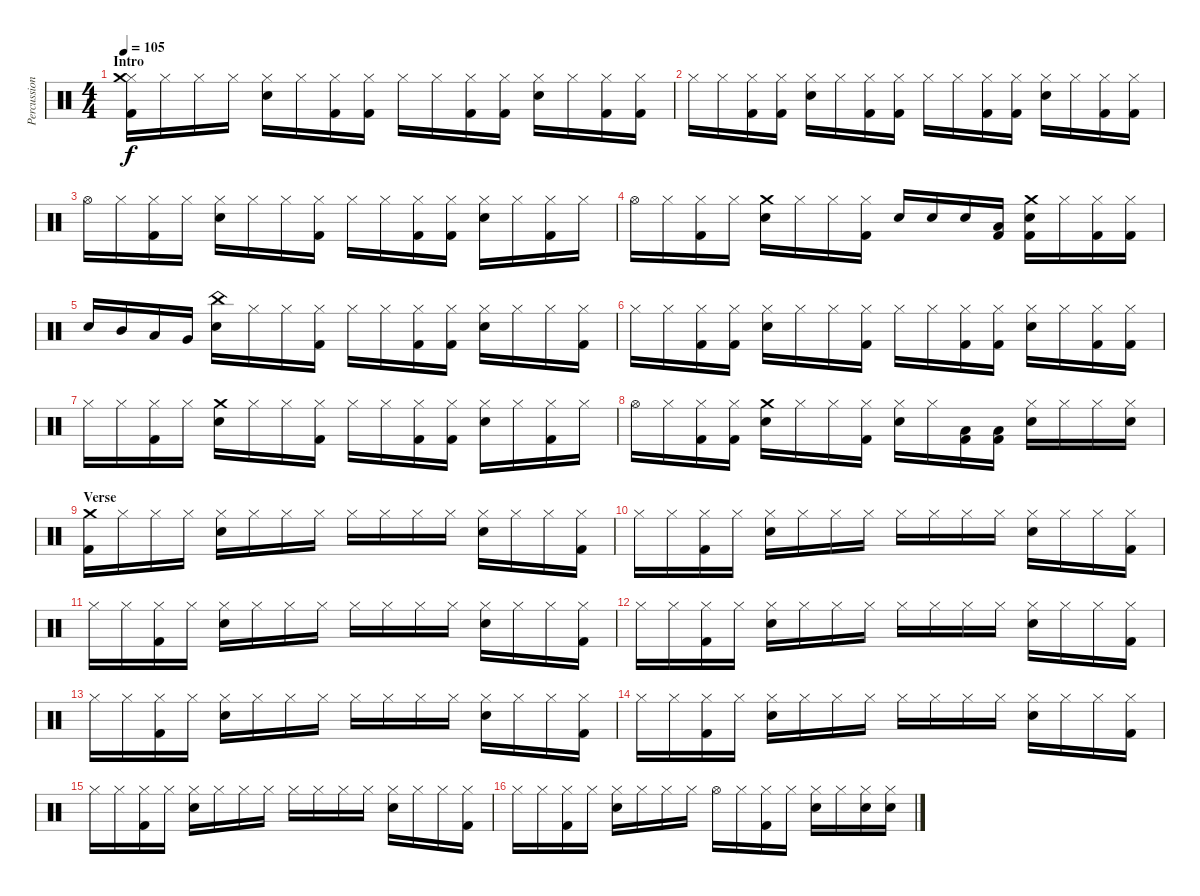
\track ("Percussion" "Percussion") {instrument percussion}
\staff {score}
\articulation defaults
\ts (4 4)
\section ("" "Intro")
\tempo 105
\clef neutral
\ks c
("Hi-Hat (closed)" "Crash medium (hit)" "Kick (hit) 2").16{dy f} "Hi-Hat (closed)".16 "Hi-Hat (closed)".16 "Hi-Hat (closed)".16 ("Hi-Hat (closed)" "Snare (hit) 2").16 "Hi-Hat (closed)".16 ("Hi-Hat (closed)" "Kick (hit) 2").16 ("Hi-Hat (closed)" "Kick (hit) 2").16 "Hi-Hat (closed)".16 "Hi-Hat (closed)".16 ("Hi-Hat (closed)" "Kick (hit) 2").16 ("Hi-Hat (closed)" "Kick (hit) 2").16 ("Hi-Hat (closed)" "Snare (hit) 2").16 "Hi-Hat (closed)".16 ("Hi-Hat (closed)" "Kick (hit) 2").16 ("Hi-Hat (closed)" "Kick (hit) 2").16 |
"Hi-Hat (closed)".16 "Hi-Hat (closed)".16 ("Hi-Hat (closed)" "Kick (hit) 2").16 ("Hi-Hat (closed)" "Kick (hit) 2").16 ("Hi-Hat (closed)" "Snare (hit) 2").16 "Hi-Hat (closed)".16 ("Hi-Hat (closed)" "Kick (hit) 2").16 ("Hi-Hat (closed)" "Kick (hit) 2").16 "Hi-Hat (closed)".16 "Hi-Hat (closed)".16 ("Hi-Hat (closed)" "Kick (hit) 2").16 ("Hi-Hat (closed)" "Kick (hit) 2").16 ("Hi-Hat (closed)" "Snare (hit) 2").16 "Hi-Hat (closed)".16 ("Hi-Hat (closed)" "Kick (hit) 2").16 ("Hi-Hat (closed)" "Kick (hit) 2").16 |
"Hi-Hat (open)".16 "Hi-Hat (closed)".16 ("Hi-Hat (closed)" "Kick (hit) 2").16 "Hi-Hat (closed)".16 ("Hi-Hat (closed)" "Snare (hit) 2").16 "Hi-Hat (closed)".16 "Hi-Hat (closed)".16 ("Hi-Hat (closed)" "Kick (hit) 2").16 "Hi-Hat (closed)".16 "Hi-Hat (closed)".16 ("Hi-Hat (closed)" "Kick (hit) 2").16 ("Hi-Hat (closed)" "Kick (hit) 2").16 ("Hi-Hat (closed)" "Snare (hit) 2").16 "Hi-Hat (closed)".16 ("Hi-Hat (closed)" "Kick (hit) 2").16 "Hi-Hat (closed)".16 |
"Hi-Hat (open)".16 "Hi-Hat (closed)".16 ("Hi-Hat (closed)" "Kick (hit) 2").16 "Hi-Hat (closed)".16 ("Crash medium (hit)" "Snare (hit) 2").16 "Hi-Hat (closed)".16 "Hi-Hat (closed)".16 ("Hi-Hat (closed)" "Kick (hit) 2").16 "Snare (hit) 2".16 "Snare (hit) 2".16 "Snare (hit) 2".16 ("Low Tom (hit)" "Kick (hit) 2").16 ("Crash medium (hit)" "Snare (hit) 2" "Kick (hit) 2").16 "Hi-Hat (closed)".16 ("Hi-Hat (closed)" "Kick (hit) 2").16 ("Hi-Hat (closed)" "Kick (hit) 2").16 |
"Snare (hit) 2".16 "Mid Tom (hit)".16 "Low Tom (hit)".16 "Very Low Tom (hit)".16 ("China (hit)" "Snare (hit) 2").16 "Hi-Hat (closed)".16 "Hi-Hat (closed)".16 ("Hi-Hat (closed)" "Kick (hit) 2").16 "Hi-Hat (closed)".16 "Hi-Hat (closed)".16 ("Hi-Hat (closed)" "Kick (hit) 2").16 ("Hi-Hat (closed)" "Kick (hit) 2").16 ("Hi-Hat (closed)" "Snare (hit) 2").16 "Hi-Hat (closed)".16 "Hi-Hat (closed)".16 ("Hi-Hat (closed)" "Kick (hit) 2").16 |
"Hi-Hat (closed)".16 "Hi-Hat (closed)".16 ("Hi-Hat (closed)" "Kick (hit) 2").16 ("Hi-Hat (closed)" "Kick (hit) 2").16 ("Hi-Hat (closed)" "Snare (hit) 2").16 "Hi-Hat (closed)".16 "Hi-Hat (closed)".16 ("Hi-Hat (closed)" "Kick (hit) 2").16 "Hi-Hat (closed)".16 "Hi-Hat (closed)".16 ("Hi-Hat (closed)" "Kick (hit) 2").16 ("Hi-Hat (closed)" "Kick (hit) 2").16 ("Hi-Hat (closed)" "Snare (hit) 2").16 "Hi-Hat (closed)".16 ("Hi-Hat (closed)" "Kick (hit) 2").16 ("Hi-Hat (closed)" "Kick (hit) 2").16 |
"Hi-Hat (closed)".16 "Hi-Hat (closed)".16 ("Hi-Hat (closed)" "Kick (hit) 2").16 "Hi-Hat (closed)".16 ("Crash medium (hit)" "Snare (hit) 2").16 "Hi-Hat (closed)".16 "Hi-Hat (closed)".16 ("Hi-Hat (closed)" "Kick (hit) 2").16 "Hi-Hat (closed)".16 "Hi-Hat (closed)".16 ("Hi-Hat (closed)" "Kick (hit) 2").16 ("Hi-Hat (closed)" "Kick (hit) 2").16 ("Hi-Hat (closed)" "Snare (hit) 2").16 "Hi-Hat (closed)".16 ("Hi-Hat (closed)" "Kick (hit) 2").16 "Hi-Hat (closed)".16 |
"Hi-Hat (open)".16 "Hi-Hat (closed)".16 ("Hi-Hat (closed)" "Kick (hit) 2").16 ("Hi-Hat (closed)" "Kick (hit) 2").16 ("Crash medium (hit)" "Snare (hit) 2").16 "Hi-Hat (closed)".16 "Hi-Hat (closed)".16 ("Hi-Hat (closed)" "Kick (hit) 2").16 ("Hi-Hat (closed)" "Snare (hit) 2").16 "Hi-Hat (closed)".16 ("Low Tom (hit)" "Kick (hit) 2").16 ("Low Tom (hit)" "Kick (hit) 2").16 ("Hi-Hat (closed)" "Snare (hit) 2").16 "Hi-Hat (closed)".16 "Hi-Hat (closed)".16 ("Hi-Hat (closed)" "Snare (hit) 2").16 |
\section ("" "Verse")
("Crash medium (hit)" "Kick (hit) 2").16 "Hi-Hat (closed)".16 "Hi-Hat (closed)".16 "Hi-Hat (closed)".16 ("Hi-Hat (closed)" "Snare (hit) 2").16 "Hi-Hat (closed)".16 "Hi-Hat (closed)".16 "Hi-Hat (closed)".16 "Hi-Hat (closed)".16 "Hi-Hat (closed)".16 "Hi-Hat (closed)".16 "Hi-Hat (closed)".16 ("Hi-Hat (closed)" "Snare (hit) 2").16 "Hi-Hat (closed)".16 "Hi-Hat (closed)".16 ("Hi-Hat (closed)" "Kick (hit) 2").16 |
"Hi-Hat (closed)".16 "Hi-Hat (closed)".16 ("Hi-Hat (closed)" "Kick (hit) 2").16 "Hi-Hat (closed)".16 ("Hi-Hat (closed)" "Snare (hit) 2").16 "Hi-Hat (closed)".16 "Hi-Hat (closed)".16 "Hi-Hat (closed)".16 "Hi-Hat (closed)".16 "Hi-Hat (closed)".16 "Hi-Hat (closed)".16 "Hi-Hat (closed)".16 ("Hi-Hat (closed)" "Snare (hit) 2").16 "Hi-Hat (closed)".16 "Hi-Hat (closed)".16 ("Hi-Hat (closed)" "Kick (hit) 2").16 |
"Hi-Hat (closed)".16 "Hi-Hat (closed)".16 ("Hi-Hat (closed)" "Kick (hit) 2").16 "Hi-Hat (closed)".16 ("Hi-Hat (closed)" "Snare (hit) 2").16 "Hi-Hat (closed)".16 "Hi-Hat (closed)".16 "Hi-Hat (closed)".16 "Hi-Hat (closed)".16 "Hi-Hat (closed)".16 "Hi-Hat (closed)".16 "Hi-Hat (closed)".16 ("Hi-Hat (closed)" "Snare (hit) 2").16 "Hi-Hat (closed)".16 "Hi-Hat (closed)".16 ("Hi-Hat (closed)" "Kick (hit) 2").16 |
"Hi-Hat (closed)".16 "Hi-Hat (closed)".16 ("Hi-Hat (closed)" "Kick (hit) 2").16 "Hi-Hat (closed)".16 ("Hi-Hat (closed)" "Snare (hit) 2").16 "Hi-Hat (closed)".16 "Hi-Hat (closed)".16 "Hi-Hat (closed)".16 "Hi-Hat (closed)".16 "Hi-Hat (closed)".16 "Hi-Hat (closed)".16 "Hi-Hat (closed)".16 ("Hi-Hat (closed)" "Snare (hit) 2").16 "Hi-Hat (closed)".16 "Hi-Hat (closed)".16 ("Hi-Hat (closed)" "Kick (hit) 2").16 |
"Hi-Hat (closed)".16 "Hi-Hat (closed)".16 ("Hi-Hat (closed)" "Kick (hit) 2").16 "Hi-Hat (closed)".16 ("Hi-Hat (closed)" "Snare (hit) 2").16 "Hi-Hat (closed)".16 "Hi-Hat (closed)".16 "Hi-Hat (closed)".16 "Hi-Hat (closed)".16 "Hi-Hat (closed)".16 "Hi-Hat (closed)".16 "Hi-Hat (closed)".16 ("Hi-Hat (closed)" "Snare (hit) 2").16 "Hi-Hat (closed)".16 "Hi-Hat (closed)".16 ("Hi-Hat (closed)" "Kick (hit) 2").16 |
"Hi-Hat (closed)".16 "Hi-Hat (closed)".16 ("Hi-Hat (closed)" "Kick (hit) 2").16 "Hi-Hat (closed)".16 ("Hi-Hat (closed)" "Snare (hit) 2").16 "Hi-Hat (closed)".16 "Hi-Hat (closed)".16 "Hi-Hat (closed)".16 "Hi-Hat (closed)".16 "Hi-Hat (closed)".16 "Hi-Hat (closed)".16 "Hi-Hat (closed)".16 ("Hi-Hat (closed)" "Snare (hit) 2").16 "Hi-Hat (closed)".16 "Hi-Hat (closed)".16 ("Hi-Hat (closed)" "Kick (hit) 2").16 |
"Hi-Hat (closed)".16 "Hi-Hat (closed)".16 ("Hi-Hat (closed)" "Kick (hit) 2").16 "Hi-Hat (closed)".16 ("Hi-Hat (closed)" "Snare (hit) 2").16 "Hi-Hat (closed)".16 "Hi-Hat (closed)".16 "Hi-Hat (closed)".16 "Hi-Hat (closed)".16 "Hi-Hat (closed)".16 "Hi-Hat (closed)".16 "Hi-Hat (closed)".16 ("Hi-Hat (closed)" "Snare (hit) 2").16 "Hi-Hat (closed)".16 "Hi-Hat (closed)".16 ("Hi-Hat (closed)" "Kick (hit) 2").16 |
"Hi-Hat (closed)".16 "Hi-Hat (closed)".16 ("Hi-Hat (closed)" "Kick (hit) 2").16 "Hi-Hat (closed)".16 ("Hi-Hat (closed)" "Snare (hit) 2").16 "Hi-Hat (closed)".16 "Hi-Hat (closed)".16 "Hi-Hat (closed)".16 "Hi-Hat (open)".16 "Hi-Hat (closed)".16 ("Hi-Hat (closed)" "Kick (hit) 2").16 "Hi-Hat (closed)".16 ("Hi-Hat (closed)" "Snare (hit) 2").16 "Hi-Hat (closed)".16 ("Hi-Hat (closed)" "Snare (hit) 2").16 ("Hi-Hat (closed)" "Snare (hit) 2").16
